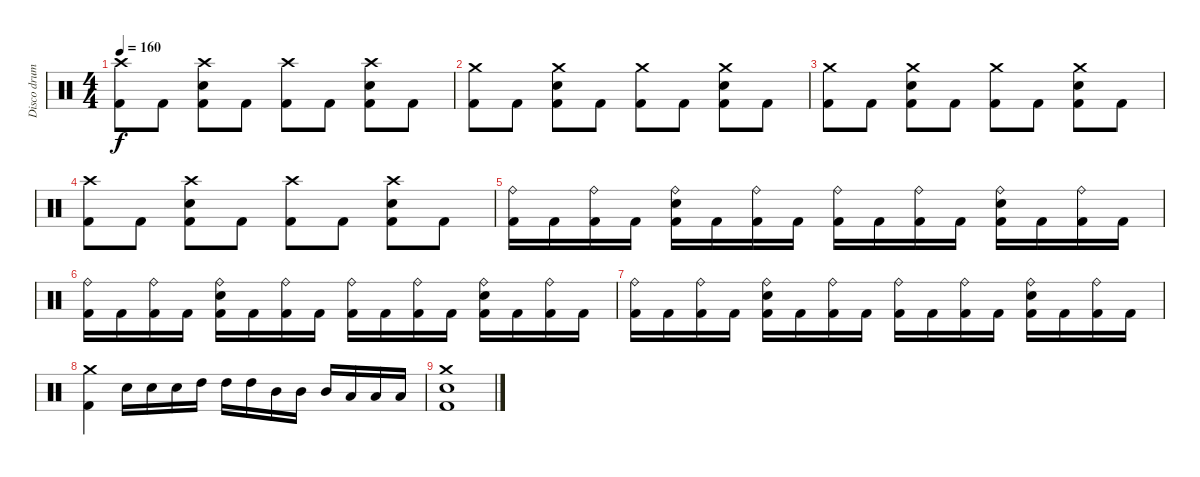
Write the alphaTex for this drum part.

\track ("Disco drum" "Disco drum") {instrument percussion}
\staff {score}
\articulation defaults
\ts (4 4)
\tempo 160
\clef neutral
\ks c
("Crash high (hit)" "Kick (hit) 2").8{dy f} "Kick (hit) 2".8 ("Crash high (hit)" "Electric Snare (hit)" "Kick (hit) 2").8 "Kick (hit) 2".8 ("Crash high (hit)" "Kick (hit) 2").8 "Kick (hit) 2".8 ("Crash high (hit)" "Electric Snare (hit)" "Kick (hit) 2").8 "Kick (hit) 2".8 |
("Crash medium (hit)" "Kick (hit) 2").8 "Kick (hit) 2".8 ("Crash medium (hit)" "Electric Snare (hit)" "Kick (hit) 2").8 "Kick (hit) 2".8 ("Crash medium (hit)" "Kick (hit) 2").8 "Kick (hit) 2".8 ("Crash medium (hit)" "Electric Snare (hit)" "Kick (hit) 2").8 "Kick (hit) 2".8 |
("Crash medium (hit)" "Kick (hit) 2").8 "Kick (hit) 2".8 ("Crash medium (hit)" "Electric Snare (hit)" "Kick (hit) 2").8 "Kick (hit) 2".8 ("Crash medium (hit)" "Kick (hit) 2").8 "Kick (hit) 2".8 ("Crash medium (hit)" "Electric Snare (hit)" "Kick (hit) 2").8 "Kick (hit) 2".8 |
("Crash high (hit)" "Kick (hit) 2").8 "Kick (hit) 2".8 ("Crash high (hit)" "Electric Snare (hit)" "Kick (hit) 2").8 "Kick (hit) 2".8 ("Crash high (hit)" "Kick (hit) 2").8 "Kick (hit) 2".8 ("Crash high (hit)" "Electric Snare (hit)" "Kick (hit) 2").8 "Kick (hit) 2".8 |
("Ride (bell)" "Kick (hit) 2").16 "Kick (hit) 2".16 ("Ride (bell)" "Kick (hit) 2").16 "Kick (hit) 2".16 ("Ride (bell)" "Electric Snare (hit)" "Kick (hit) 2").16 "Kick (hit) 2".16 ("Ride (bell)" "Kick (hit) 2").16 "Kick (hit) 2".16 ("Ride (bell)" "Kick (hit) 2").16 "Kick (hit) 2".16 ("Ride (bell)" "Kick (hit) 2").16 "Kick (hit) 2".16 ("Ride (bell)" "Electric Snare (hit)" "Kick (hit) 2").16 "Kick (hit) 2".16 ("Ride (bell)" "Kick (hit) 2").16 "Kick (hit) 2".16 |
("Ride (bell)" "Kick (hit) 2").16 "Kick (hit) 2".16 ("Ride (bell)" "Kick (hit) 2").16 "Kick (hit) 2".16 ("Ride (bell)" "Electric Snare (hit)" "Kick (hit) 2").16 "Kick (hit) 2".16 ("Ride (bell)" "Kick (hit) 2").16 "Kick (hit) 2".16 ("Ride (bell)" "Kick (hit) 2").16 "Kick (hit) 2".16 ("Ride (bell)" "Kick (hit) 2").16 "Kick (hit) 2".16 ("Ride (bell)" "Electric Snare (hit)" "Kick (hit) 2").16 "Kick (hit) 2".16 ("Ride (bell)" "Kick (hit) 2").16 "Kick (hit) 2".16 |
("Ride (bell)" "Kick (hit) 2").16 "Kick (hit) 2".16 ("Ride (bell)" "Kick (hit) 2").16 "Kick (hit) 2".16 ("Ride (bell)" "Electric Snare (hit)" "Kick (hit) 2").16 "Kick (hit) 2".16 ("Ride (bell)" "Kick (hit) 2").16 "Kick (hit) 2".16 ("Ride (bell)" "Kick (hit) 2").16 "Kick (hit) 2".16 ("Ride (bell)" "Kick (hit) 2").16 "Kick (hit) 2".16 ("Ride (bell)" "Electric Snare (hit)" "Kick (hit) 2").16 "Kick (hit) 2".16 ("Ride (bell)" "Kick (hit) 2").16 "Kick (hit) 2".16 |
("Crash medium (hit)" "Kick (hit) 2").4 "Electric Snare (hit)".16 "Electric Snare (hit)".16 "Electric Snare (hit)".16 "High Tom (hit)".16 "High Tom (hit)".16 "High Tom (hit)".16 "Mid Tom (hit)".16 "Mid Tom (hit)".16 "Mid Tom (hit)".16 "Low Tom (hit)".16 "Low Tom (hit)".16 "Low Tom (hit)".16 |
("Crash medium (hit)" "Electric Snare (hit)" "Kick (hit) 2").1
